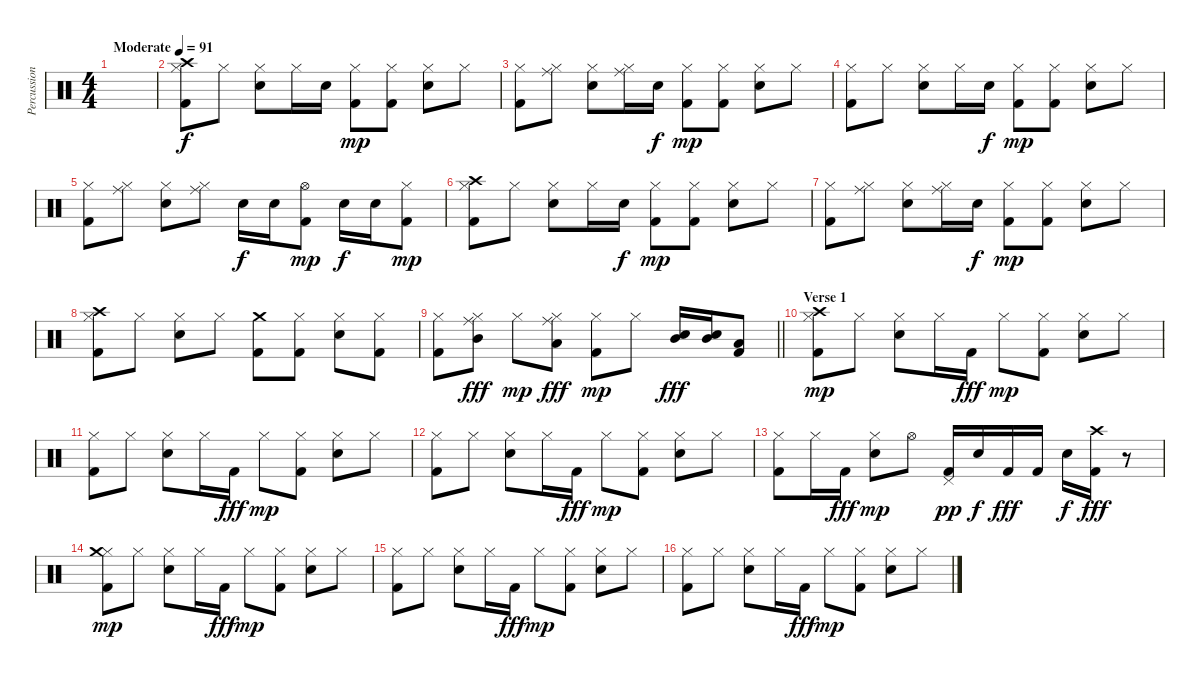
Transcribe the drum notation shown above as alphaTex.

\track ("Percussion" "Percussion") {instrument percussion}
\staff {score}
\articulation defaults
\ts (4 4)
\tempo (91 "Moderate")
\clef neutral
\ks c
|
("Kick (hit) 2" "Hi-Hat (closed)" "Crash high (hit)").8 "Hi-Hat (closed)".8 ("Electric Snare (hit)" "Hi-Hat (closed)").8 "Hi-Hat (closed)".16 "Electric Snare (hit)".16{dy f} ("Kick (hit) 2" "Hi-Hat (closed)").8{dy mp} ("Kick (hit) 2" "Hi-Hat (closed)").8 ("Electric Snare (hit)" "Hi-Hat (closed)").8 "Hi-Hat (closed)".8 |
("Kick (hit) 2" "Hi-Hat (closed)").8 ("Ride (middle)" "Hi-Hat (closed)").8 ("Electric Snare (hit)" "Hi-Hat (closed)").8 ("Ride (middle)" "Hi-Hat (closed)").16 "Electric Snare (hit)".16{dy f} ("Kick (hit) 2" "Hi-Hat (closed)").8{dy mp} ("Kick (hit) 2" "Hi-Hat (closed)").8 ("Electric Snare (hit)" "Hi-Hat (closed)").8 "Hi-Hat (closed)".8 |
("Kick (hit) 2" "Hi-Hat (closed)").8 "Hi-Hat (closed)".8 ("Electric Snare (hit)" "Hi-Hat (closed)").8 "Hi-Hat (closed)".16 "Electric Snare (hit)".16{dy f} ("Kick (hit) 2" "Hi-Hat (closed)").8{dy mp} ("Kick (hit) 2" "Hi-Hat (closed)").8 ("Electric Snare (hit)" "Hi-Hat (closed)").8 "Hi-Hat (closed)".8 |
("Kick (hit) 2" "Hi-Hat (closed)").8 ("Ride (middle)" "Hi-Hat (closed)").8 ("Electric Snare (hit)" "Hi-Hat (closed)").8 ("Ride (middle)" "Hi-Hat (closed)").8 "Electric Snare (hit)".16{dy f} "Electric Snare (hit)".16 ("Kick (hit) 2" "Hi-Hat (open)").8{dy mp} "Electric Snare (hit)".16{dy f} "Electric Snare (hit)".16 ("Kick (hit) 2" "Hi-Hat (closed)").8{dy mp} |
("Kick (hit) 2" "Hi-Hat (closed)" "Crash high (hit)").8 "Hi-Hat (closed)".8 ("Electric Snare (hit)" "Hi-Hat (closed)").8 "Hi-Hat (closed)".16 "Electric Snare (hit)".16{dy f} ("Kick (hit) 2" "Hi-Hat (closed)").8{dy mp} ("Kick (hit) 2" "Hi-Hat (closed)").8 ("Electric Snare (hit)" "Hi-Hat (closed)").8 "Hi-Hat (closed)".8 |
("Kick (hit) 2" "Hi-Hat (closed)").8 ("Ride (middle)" "Hi-Hat (closed)").8 ("Electric Snare (hit)" "Hi-Hat (closed)").8 ("Ride (middle)" "Hi-Hat (closed)").16 "Electric Snare (hit)".16{dy f} ("Kick (hit) 2" "Hi-Hat (closed)").8{dy mp} ("Kick (hit) 2" "Hi-Hat (closed)").8 ("Electric Snare (hit)" "Hi-Hat (closed)").8 "Hi-Hat (closed)".8 |
("Kick (hit) 2" "Hi-Hat (closed)" "Crash high (hit)").8 "Hi-Hat (closed)".8 ("Electric Snare (hit)" "Hi-Hat (closed)").8 "Hi-Hat (closed)".8 ("Kick (hit) 2" "Crash medium (hit)").8 ("Kick (hit) 2" "Hi-Hat (closed)").8 ("Electric Snare (hit)" "Hi-Hat (closed)").8 ("Kick (hit) 2" "Hi-Hat (closed)").8 |
\barLineRight lightlight
("Kick (hit) 2" "Hi-Hat (closed)").8 ("Ride (middle)" "Hi-Hat (closed)" "Mid Tom (hit)").8{dy fff} "Hi-Hat (closed)".8{dy mp} ("Ride (middle)" "Hi-Hat (closed)" "Low Tom (hit)").8{dy fff} ("Kick (hit) 2" "Hi-Hat (closed)").8{dy mp} "Hi-Hat (closed)".8 ("Electric Snare (hit)" "Mid Tom (hit)").16{dy fff} ("Electric Snare (hit)" "Mid Tom (hit)").16 ("Kick (hit) 2" "Low Tom (hit)").8 |
\section ("" "Verse 1")
("Kick (hit) 2" "Hi-Hat (closed)" "Crash high (hit)").8{dy mp} "Hi-Hat (closed)".8 ("Electric Snare (hit)" "Hi-Hat (closed)").8 "Hi-Hat (closed)".16 "Kick (hit) 2".16{dy fff} "Hi-Hat (closed)".8{dy mp} ("Kick (hit) 2" "Hi-Hat (closed)").8 ("Electric Snare (hit)" "Hi-Hat (closed)").8 "Hi-Hat (closed)".8 |
("Kick (hit) 2" "Hi-Hat (closed)").8 "Hi-Hat (closed)".8 ("Electric Snare (hit)" "Hi-Hat (closed)").8 "Hi-Hat (closed)".16 "Kick (hit) 2".16{dy fff} "Hi-Hat (closed)".8{dy mp} ("Kick (hit) 2" "Hi-Hat (closed)").8 ("Electric Snare (hit)" "Hi-Hat (closed)").8 "Hi-Hat (closed)".8 |
("Kick (hit) 2" "Hi-Hat (closed)").8 "Hi-Hat (closed)".8 ("Electric Snare (hit)" "Hi-Hat (closed)").8 "Hi-Hat (closed)".16 "Kick (hit) 2".16{dy fff} "Hi-Hat (closed)".8{dy mp} ("Kick (hit) 2" "Hi-Hat (closed)").8 ("Electric Snare (hit)" "Hi-Hat (closed)").8 "Hi-Hat (closed)".8 |
("Kick (hit) 2" "Hi-Hat (closed)").8 "Hi-Hat (closed)".16 "Kick (hit) 2".16{dy fff} ("Electric Snare (hit)" "Hi-Hat (closed)").8{dy mp} "Hi-Hat (open)".8 ("Kick (hit) 2" "Pedal Hi-Hat (hit)").16{dy pp} "Electric Snare (hit)".16{dy f} "Kick (hit) 2".16{dy fff} "Kick (hit) 2".16 "Electric Snare (hit)".16{dy f} ("Kick (hit) 2" "Crash high (hit)").16{dy fff} r.8 |
("Kick (hit) 2" "Hi-Hat (closed)" "Crash medium (hit)").8{dy mp} "Hi-Hat (closed)".8 ("Electric Snare (hit)" "Hi-Hat (closed)").8 "Hi-Hat (closed)".16 "Kick (hit) 2".16{dy fff} "Hi-Hat (closed)".8{dy mp} ("Kick (hit) 2" "Hi-Hat (closed)").8 ("Electric Snare (hit)" "Hi-Hat (closed)").8 "Hi-Hat (closed)".8 |
("Kick (hit) 2" "Hi-Hat (closed)").8 "Hi-Hat (closed)".8 ("Electric Snare (hit)" "Hi-Hat (closed)").8 "Hi-Hat (closed)".16 "Kick (hit) 2".16{dy fff} "Hi-Hat (closed)".8{dy mp} ("Kick (hit) 2" "Hi-Hat (closed)").8 ("Electric Snare (hit)" "Hi-Hat (closed)").8 "Hi-Hat (closed)".8 |
("Kick (hit) 2" "Hi-Hat (closed)").8 "Hi-Hat (closed)".8 ("Electric Snare (hit)" "Hi-Hat (closed)").8 "Hi-Hat (closed)".16 "Kick (hit) 2".16{dy fff} "Hi-Hat (closed)".8{dy mp} ("Kick (hit) 2" "Hi-Hat (closed)").8 ("Electric Snare (hit)" "Hi-Hat (closed)").8 "Hi-Hat (closed)".8
